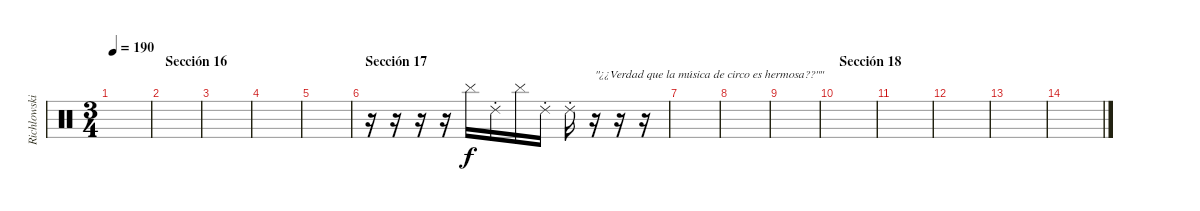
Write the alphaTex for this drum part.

\track ("Richlowski y Dj Raff" "Richlowski") {instrument percussion}
\staff {score}
\articulation defaults
\ts (3 4)
\tempo 190
\clef neutral
\ks c
|
\section ("" "Sección 16")
|
|
|
|
\section ("" "Sección 17")
r.16 r.16 r.16 r.16 "Cymbal (hit)".16 "Ride (choke) 2".16 "Cymbal (hit)".16 "Ride (choke) 2".16 "Ride (choke) 2".16 r.16{txt "\"¿¿Verdad que la música de circo es hermosa??\"\""} r.16 r.16 |
|
|
|
\section ("" "Sección 18")
|
|
|
|
\section ("" "")
